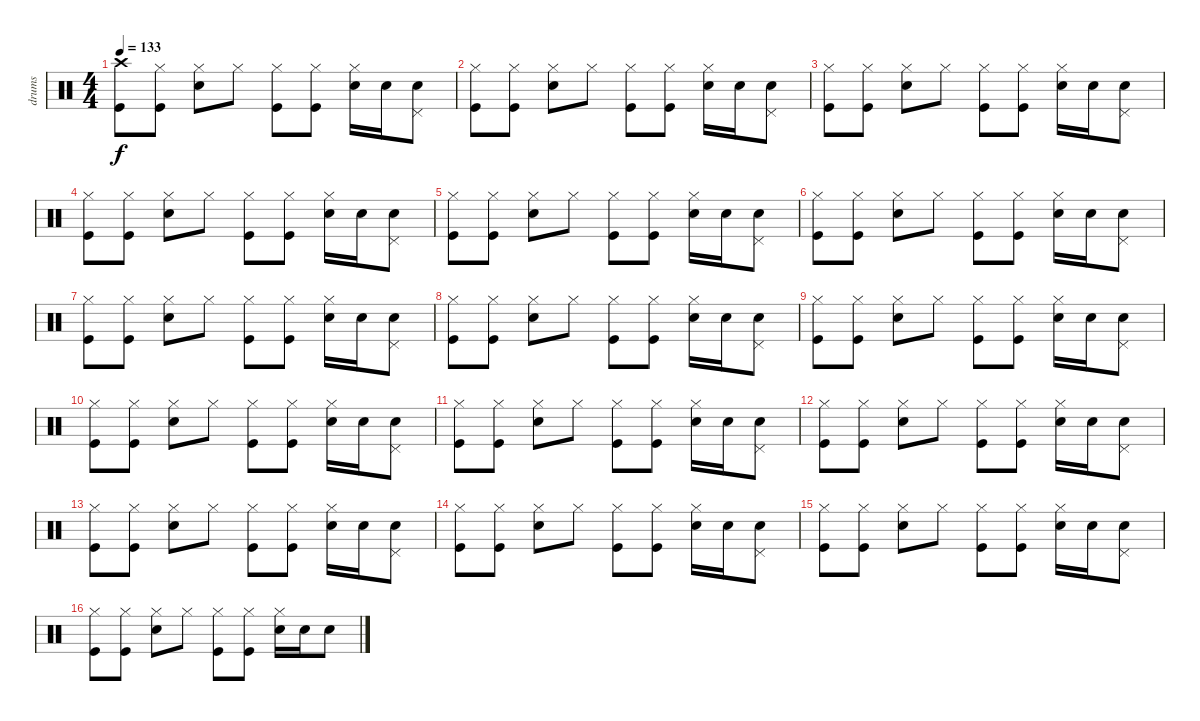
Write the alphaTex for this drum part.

\track ("drums" "drums") {instrument percussion}
\staff {score}
\articulation defaults
\ts (4 4)
\tempo 133
\clef neutral
\ks c
("Kick (hit)" "Crash high (hit)").8{dy f} ("Kick (hit)" "Hi-Hat (closed)").8 ("Electric Snare (hit)" "Hi-Hat (closed)").8 "Hi-Hat (closed)".8 ("Kick (hit)" "Hi-Hat (closed)").8 ("Kick (hit)" "Hi-Hat (closed)").8 ("Electric Snare (hit)" "Hi-Hat (closed)").16 "Electric Snare (hit)".16 ("Electric Snare (hit)" "Pedal Hi-Hat (hit)").8 |
("Kick (hit)" "Hi-Hat (closed)").8 ("Kick (hit)" "Hi-Hat (closed)").8 ("Electric Snare (hit)" "Hi-Hat (closed)").8 "Hi-Hat (closed)".8 ("Kick (hit)" "Hi-Hat (closed)").8 ("Kick (hit)" "Hi-Hat (closed)").8 ("Electric Snare (hit)" "Hi-Hat (closed)").16 "Electric Snare (hit)".16 ("Electric Snare (hit)" "Pedal Hi-Hat (hit)").8 |
("Kick (hit)" "Hi-Hat (closed)").8 ("Kick (hit)" "Hi-Hat (closed)").8 ("Electric Snare (hit)" "Hi-Hat (closed)").8 "Hi-Hat (closed)".8 ("Kick (hit)" "Hi-Hat (closed)").8 ("Kick (hit)" "Hi-Hat (closed)").8 ("Electric Snare (hit)" "Hi-Hat (closed)").16 "Electric Snare (hit)".16 ("Electric Snare (hit)" "Pedal Hi-Hat (hit)").8 |
("Kick (hit)" "Hi-Hat (closed)").8 ("Kick (hit)" "Hi-Hat (closed)").8 ("Electric Snare (hit)" "Hi-Hat (closed)").8 "Hi-Hat (closed)".8 ("Kick (hit)" "Hi-Hat (closed)").8 ("Kick (hit)" "Hi-Hat (closed)").8 ("Electric Snare (hit)" "Hi-Hat (closed)").16 "Electric Snare (hit)".16 ("Electric Snare (hit)" "Pedal Hi-Hat (hit)").8 |
("Kick (hit)" "Hi-Hat (closed)").8 ("Kick (hit)" "Hi-Hat (closed)").8 ("Electric Snare (hit)" "Hi-Hat (closed)").8 "Hi-Hat (closed)".8 ("Kick (hit)" "Hi-Hat (closed)").8 ("Kick (hit)" "Hi-Hat (closed)").8 ("Electric Snare (hit)" "Hi-Hat (closed)").16 "Electric Snare (hit)".16 ("Electric Snare (hit)" "Pedal Hi-Hat (hit)").8 |
("Kick (hit)" "Hi-Hat (closed)").8 ("Kick (hit)" "Hi-Hat (closed)").8 ("Electric Snare (hit)" "Hi-Hat (closed)").8 "Hi-Hat (closed)".8 ("Kick (hit)" "Hi-Hat (closed)").8 ("Kick (hit)" "Hi-Hat (closed)").8 ("Electric Snare (hit)" "Hi-Hat (closed)").16 "Electric Snare (hit)".16 ("Electric Snare (hit)" "Pedal Hi-Hat (hit)").8 |
("Kick (hit)" "Hi-Hat (closed)").8 ("Kick (hit)" "Hi-Hat (closed)").8 ("Electric Snare (hit)" "Hi-Hat (closed)").8 "Hi-Hat (closed)".8 ("Kick (hit)" "Hi-Hat (closed)").8 ("Kick (hit)" "Hi-Hat (closed)").8 ("Electric Snare (hit)" "Hi-Hat (closed)").16 "Electric Snare (hit)".16 ("Electric Snare (hit)" "Pedal Hi-Hat (hit)").8 |
("Kick (hit)" "Hi-Hat (closed)").8 ("Kick (hit)" "Hi-Hat (closed)").8 ("Electric Snare (hit)" "Hi-Hat (closed)").8 "Hi-Hat (closed)".8 ("Kick (hit)" "Hi-Hat (closed)").8 ("Kick (hit)" "Hi-Hat (closed)").8 ("Electric Snare (hit)" "Hi-Hat (closed)").16 "Electric Snare (hit)".16 ("Electric Snare (hit)" "Pedal Hi-Hat (hit)").8 |
("Kick (hit)" "Hi-Hat (closed)").8 ("Kick (hit)" "Hi-Hat (closed)").8 ("Electric Snare (hit)" "Hi-Hat (closed)").8 "Hi-Hat (closed)".8 ("Kick (hit)" "Hi-Hat (closed)").8 ("Kick (hit)" "Hi-Hat (closed)").8 ("Electric Snare (hit)" "Hi-Hat (closed)").16 "Electric Snare (hit)".16 ("Electric Snare (hit)" "Pedal Hi-Hat (hit)").8 |
("Kick (hit)" "Hi-Hat (closed)").8 ("Kick (hit)" "Hi-Hat (closed)").8 ("Electric Snare (hit)" "Hi-Hat (closed)").8 "Hi-Hat (closed)".8 ("Kick (hit)" "Hi-Hat (closed)").8 ("Kick (hit)" "Hi-Hat (closed)").8 ("Electric Snare (hit)" "Hi-Hat (closed)").16 "Electric Snare (hit)".16 ("Electric Snare (hit)" "Pedal Hi-Hat (hit)").8 |
("Kick (hit)" "Hi-Hat (closed)").8 ("Kick (hit)" "Hi-Hat (closed)").8 ("Electric Snare (hit)" "Hi-Hat (closed)").8 "Hi-Hat (closed)".8 ("Kick (hit)" "Hi-Hat (closed)").8 ("Kick (hit)" "Hi-Hat (closed)").8 ("Electric Snare (hit)" "Hi-Hat (closed)").16 "Electric Snare (hit)".16 ("Electric Snare (hit)" "Pedal Hi-Hat (hit)").8 |
("Kick (hit)" "Hi-Hat (closed)").8 ("Kick (hit)" "Hi-Hat (closed)").8 ("Electric Snare (hit)" "Hi-Hat (closed)").8 "Hi-Hat (closed)".8 ("Kick (hit)" "Hi-Hat (closed)").8 ("Kick (hit)" "Hi-Hat (closed)").8 ("Electric Snare (hit)" "Hi-Hat (closed)").16 "Electric Snare (hit)".16 ("Electric Snare (hit)" "Pedal Hi-Hat (hit)").8 |
("Kick (hit)" "Hi-Hat (closed)").8 ("Kick (hit)" "Hi-Hat (closed)").8 ("Electric Snare (hit)" "Hi-Hat (closed)").8 "Hi-Hat (closed)".8 ("Kick (hit)" "Hi-Hat (closed)").8 ("Kick (hit)" "Hi-Hat (closed)").8 ("Electric Snare (hit)" "Hi-Hat (closed)").16 "Electric Snare (hit)".16 ("Electric Snare (hit)" "Pedal Hi-Hat (hit)").8 |
("Kick (hit)" "Hi-Hat (closed)").8 ("Kick (hit)" "Hi-Hat (closed)").8 ("Electric Snare (hit)" "Hi-Hat (closed)").8 "Hi-Hat (closed)".8 ("Kick (hit)" "Hi-Hat (closed)").8 ("Kick (hit)" "Hi-Hat (closed)").8 ("Electric Snare (hit)" "Hi-Hat (closed)").16 "Electric Snare (hit)".16 ("Electric Snare (hit)" "Pedal Hi-Hat (hit)").8 |
("Kick (hit)" "Hi-Hat (closed)").8 ("Kick (hit)" "Hi-Hat (closed)").8 ("Electric Snare (hit)" "Hi-Hat (closed)").8 "Hi-Hat (closed)".8 ("Kick (hit)" "Hi-Hat (closed)").8 ("Kick (hit)" "Hi-Hat (closed)").8 ("Electric Snare (hit)" "Hi-Hat (closed)").16 "Electric Snare (hit)".16 ("Electric Snare (hit)" "Pedal Hi-Hat (hit)").8 |
("Kick (hit)" "Hi-Hat (closed)").8 ("Kick (hit)" "Hi-Hat (closed)").8 ("Electric Snare (hit)" "Hi-Hat (closed)").8 "Hi-Hat (closed)".8 ("Kick (hit)" "Hi-Hat (closed)").8 ("Kick (hit)" "Hi-Hat (closed)").8 ("Electric Snare (hit)" "Hi-Hat (closed)").16 "Electric Snare (hit)".16 "Electric Snare (hit)".8
